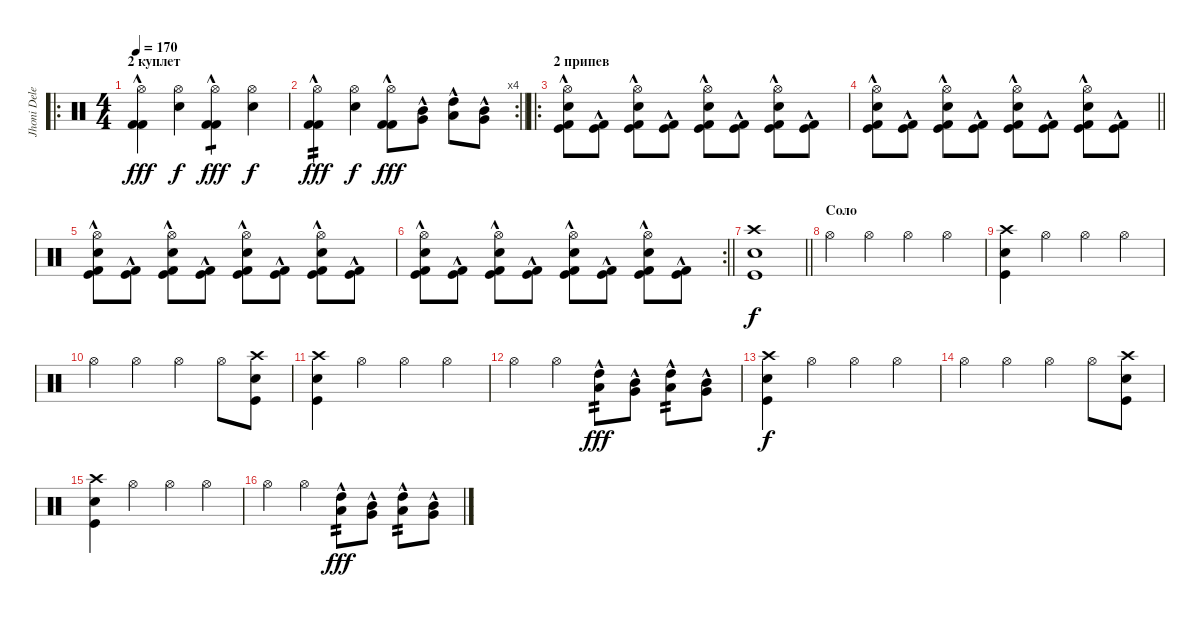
\track ("Jhoni Delenger" "Jhoni Dele") {instrument percussion}
\staff {score}
\articulation defaults
\ro
\ts (4 4)
\section ("" "2 куплет")
\tempo 170
\clef neutral
\ks c
("Hi-Hat (open)" "Kick (hit) 2"{hac} "Kick (hit) 2").4{dy fff} ("Hi-Hat (open)" "Snare (hit) 2").4{dy f} ("Hi-Hat (open)" "Kick (hit) 2"{hac} "Kick (hit) 2").4{tp 1 dy fff} ("Hi-Hat (open)" "Snare (hit) 2").4{dy f} |
\rc 4
\barLineRight lightlight
("Hi-Hat (open)" "Kick (hit) 2"{hac} "Kick (hit) 2").4{tp 2 dy fff} ("Hi-Hat (open)" "Snare (hit) 2").4{dy f} ("Hi-Hat (open)" "Kick (hit) 2"{hac} "Kick (hit) 2").8{dy fff} ("Mid Tom (hit)"{hac} "Very Low Tom (hit)"{hac}).8 ("High Tom (hit)"{hac} "Low Tom (hit)"{hac}).8 ("Mid Tom (hit)"{hac} "Very Low Tom (hit)"{hac}).8 |
\ro
\section ("" "2 припев")
("Hi-Hat (open)" "Snare (hit) 2" "Kick (hit) 2"{hac} "Kick (hit)").8 ("Kick (hit) 2"{hac} "Kick (hit)").8 ("Hi-Hat (open)" "Snare (hit) 2" "Kick (hit) 2"{hac} "Kick (hit)").8 ("Kick (hit) 2"{hac} "Kick (hit)").8 ("Hi-Hat (open)" "Snare (hit) 2" "Kick (hit) 2"{hac} "Kick (hit)").8 ("Kick (hit) 2"{hac} "Kick (hit)").8 ("Hi-Hat (open)" "Snare (hit) 2" "Kick (hit) 2"{hac} "Kick (hit)").8 ("Kick (hit) 2"{hac} "Kick (hit)").8 |
\barLineRight lightlight
("Hi-Hat (open)" "Snare (hit) 2" "Kick (hit) 2"{hac} "Kick (hit)").8 ("Kick (hit) 2"{hac} "Kick (hit)").8 ("Hi-Hat (open)" "Snare (hit) 2" "Kick (hit) 2"{hac} "Kick (hit)").8 ("Kick (hit) 2"{hac} "Kick (hit)").8 ("Hi-Hat (open)" "Snare (hit) 2" "Kick (hit) 2"{hac} "Kick (hit)").8 ("Kick (hit) 2"{hac} "Kick (hit)").8 ("Hi-Hat (open)" "Snare (hit) 2" "Kick (hit) 2"{hac} "Kick (hit)").8 ("Kick (hit) 2"{hac} "Kick (hit)").8 |
("Hi-Hat (open)" "Snare (hit) 2" "Kick (hit) 2"{hac} "Kick (hit)").8 ("Kick (hit) 2"{hac} "Kick (hit)").8 ("Hi-Hat (open)" "Snare (hit) 2" "Kick (hit) 2"{hac} "Kick (hit)").8 ("Kick (hit) 2"{hac} "Kick (hit)").8 ("Hi-Hat (open)" "Snare (hit) 2" "Kick (hit) 2"{hac} "Kick (hit)").8 ("Kick (hit) 2"{hac} "Kick (hit)").8 ("Hi-Hat (open)" "Snare (hit) 2" "Kick (hit) 2"{hac} "Kick (hit)").8 ("Kick (hit) 2"{hac} "Kick (hit)").8 |
\rc 2
\barLineRight lightlight
("Hi-Hat (open)" "Snare (hit) 2" "Kick (hit) 2"{hac} "Kick (hit)").8 ("Kick (hit) 2"{hac} "Kick (hit)").8 ("Hi-Hat (open)" "Snare (hit) 2" "Kick (hit) 2"{hac} "Kick (hit)").8 ("Kick (hit) 2"{hac} "Kick (hit)").8 ("Hi-Hat (open)" "Snare (hit) 2" "Kick (hit) 2"{hac} "Kick (hit)").8 ("Kick (hit) 2"{hac} "Kick (hit)").8 ("Hi-Hat (open)" "Snare (hit) 2" "Kick (hit) 2"{hac} "Kick (hit)").8 ("Kick (hit) 2"{hac} "Kick (hit)").8 |
\barLineRight lightlight
("Snare (hit) 2" "Crash high (hit)" "Kick (hit)").1{dy f} |
\section ("" "Соло")
"Hi-Hat (open)".4 "Hi-Hat (open)".4 "Hi-Hat (open)".4 "Hi-Hat (open)".4 |
("Snare (hit) 2" "Crash high (hit)" "Kick (hit)").4 "Hi-Hat (open)".4 "Hi-Hat (open)".4 "Hi-Hat (open)".4 |
"Hi-Hat (open)".4 "Hi-Hat (open)".4 "Hi-Hat (open)".4 "Hi-Hat (open)".8 ("Snare (hit) 2" "Crash high (hit)" "Kick (hit)").8 |
("Snare (hit) 2" "Crash high (hit)" "Kick (hit)").4 "Hi-Hat (open)".4 "Hi-Hat (open)".4 "Hi-Hat (open)".4 |
"Hi-Hat (open)".4 "Hi-Hat (open)".4 ("High Tom (hit)"{hac} "Low Tom (hit)"{hac}).8{tp 2 dy fff} ("Mid Tom (hit)"{hac} "Very Low Tom (hit)"{hac}).8 ("High Tom (hit)"{hac} "Low Tom (hit)"{hac}).8{tp 2} ("Mid Tom (hit)"{hac} "Very Low Tom (hit)"{hac}).8 |
("Snare (hit) 2" "Crash high (hit)" "Kick (hit)").4{dy f} "Hi-Hat (open)".4 "Hi-Hat (open)".4 "Hi-Hat (open)".4 |
"Hi-Hat (open)".4 "Hi-Hat (open)".4 "Hi-Hat (open)".4 "Hi-Hat (open)".8 ("Snare (hit) 2" "Crash high (hit)" "Kick (hit)").8 |
("Snare (hit) 2" "Crash high (hit)" "Kick (hit)").4 "Hi-Hat (open)".4 "Hi-Hat (open)".4 "Hi-Hat (open)".4 |
"Hi-Hat (open)".4{volume 12} "Hi-Hat (open)".4 ("High Tom (hit)"{hac} "Low Tom (hit)"{hac}).8{tp 2 dy fff} ("Mid Tom (hit)"{hac} "Very Low Tom (hit)"{hac}).8 ("High Tom (hit)"{hac} "Low Tom (hit)"{hac}).8{tp 2} ("Mid Tom (hit)"{hac} "Very Low Tom (hit)"{hac}).8
